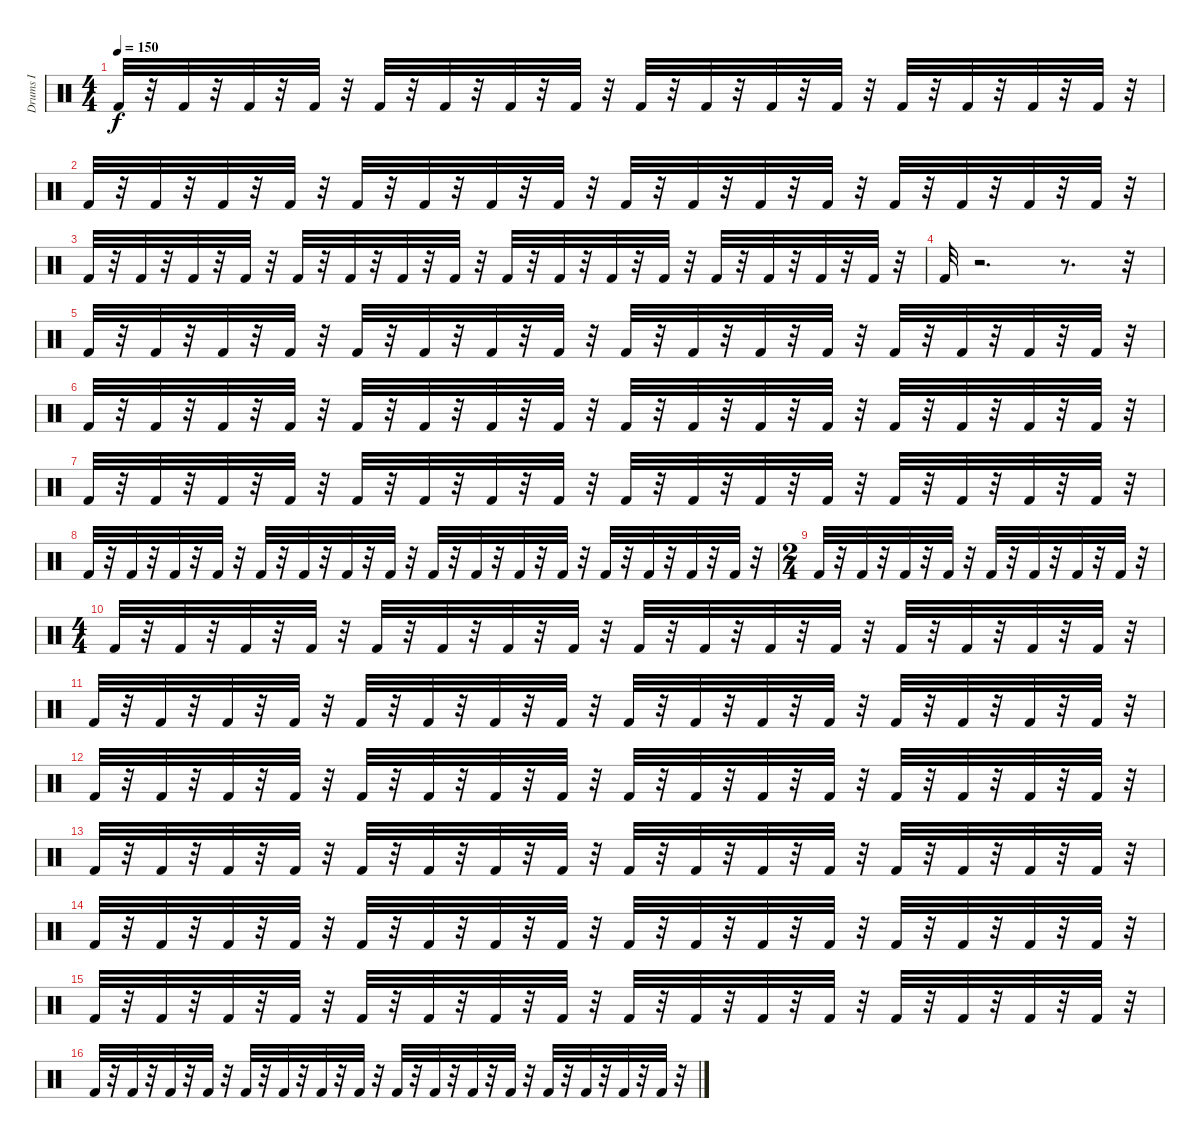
\track ("Drums I" "Drums I") {instrument percussion}
\staff {score}
\articulation defaults
\ts (4 4)
\tempo 150
\clef neutral
\ks c "Kick (hit) 2".32{dy f}
r.32 "Kick (hit) 2".32 r.32 "Kick (hit) 2".32 r.32 "Kick (hit) 2".32 r.32 "Kick (hit) 2".32 r.32 "Kick (hit) 2".32 r.32 "Kick (hit) 2".32 r.32 "Kick (hit) 2".32 r.32 "Kick (hit) 2".32 r.32 "Kick (hit) 2".32 r.32 "Kick (hit) 2".32 r.32 "Kick (hit) 2".32 r.32 "Kick (hit) 2".32 r.32 "Kick (hit) 2".32 r.32 "Kick (hit) 2".32 r.32 "Kick (hit) 2".32 r.32 |
"Kick (hit) 2".32 r.32 "Kick (hit) 2".32 r.32 "Kick (hit) 2".32 r.32 "Kick (hit) 2".32 r.32 "Kick (hit) 2".32 r.32 "Kick (hit) 2".32 r.32 "Kick (hit) 2".32 r.32 "Kick (hit) 2".32 r.32 "Kick (hit) 2".32 r.32 "Kick (hit) 2".32 r.32 "Kick (hit) 2".32 r.32 "Kick (hit) 2".32 r.32 "Kick (hit) 2".32 r.32 "Kick (hit) 2".32 r.32 "Kick (hit) 2".32 r.32 "Kick (hit) 2".32 r.32 |
"Kick (hit) 2".32 r.32 "Kick (hit) 2".32 r.32 "Kick (hit) 2".32 r.32 "Kick (hit) 2".32 r.32 "Kick (hit) 2".32 r.32 "Kick (hit) 2".32 r.32 "Kick (hit) 2".32 r.32 "Kick (hit) 2".32 r.32 "Kick (hit) 2".32 r.32 "Kick (hit) 2".32 r.32 "Kick (hit) 2".32 r.32 "Kick (hit) 2".32 r.32 "Kick (hit) 2".32 r.32 "Kick (hit) 2".32 r.32 "Kick (hit) 2".32 r.32 "Kick (hit) 2".32 r.32 |
"Kick (hit) 2".32 r.2{d} r.8{d} r.32 |
"Kick (hit) 2".32 r.32 "Kick (hit) 2".32 r.32 "Kick (hit) 2".32 r.32 "Kick (hit) 2".32 r.32 "Kick (hit) 2".32 r.32 "Kick (hit) 2".32 r.32 "Kick (hit) 2".32 r.32 "Kick (hit) 2".32 r.32 "Kick (hit) 2".32 r.32 "Kick (hit) 2".32 r.32 "Kick (hit) 2".32 r.32 "Kick (hit) 2".32 r.32 "Kick (hit) 2".32 r.32 "Kick (hit) 2".32 r.32 "Kick (hit) 2".32 r.32 "Kick (hit) 2".32 r.32 |
"Kick (hit) 2".32 r.32 "Kick (hit) 2".32 r.32 "Kick (hit) 2".32 r.32 "Kick (hit) 2".32 r.32 "Kick (hit) 2".32 r.32 "Kick (hit) 2".32 r.32 "Kick (hit) 2".32 r.32 "Kick (hit) 2".32 r.32 "Kick (hit) 2".32 r.32 "Kick (hit) 2".32 r.32 "Kick (hit) 2".32 r.32 "Kick (hit) 2".32 r.32 "Kick (hit) 2".32 r.32 "Kick (hit) 2".32 r.32 "Kick (hit) 2".32 r.32 "Kick (hit) 2".32 r.32 |
"Kick (hit) 2".32 r.32 "Kick (hit) 2".32 r.32 "Kick (hit) 2".32 r.32 "Kick (hit) 2".32 r.32 "Kick (hit) 2".32 r.32 "Kick (hit) 2".32 r.32 "Kick (hit) 2".32 r.32 "Kick (hit) 2".32 r.32 "Kick (hit) 2".32 r.32 "Kick (hit) 2".32 r.32 "Kick (hit) 2".32 r.32 "Kick (hit) 2".32 r.32 "Kick (hit) 2".32 r.32 "Kick (hit) 2".32 r.32 "Kick (hit) 2".32 r.32 "Kick (hit) 2".32 r.32 |
"Kick (hit) 2".32 r.32 "Kick (hit) 2".32 r.32 "Kick (hit) 2".32 r.32 "Kick (hit) 2".32 r.32 "Kick (hit) 2".32 r.32 "Kick (hit) 2".32 r.32 "Kick (hit) 2".32 r.32 "Kick (hit) 2".32 r.32 "Kick (hit) 2".32 r.32 "Kick (hit) 2".32 r.32 "Kick (hit) 2".32 r.32 "Kick (hit) 2".32 r.32 "Kick (hit) 2".32 r.32 "Kick (hit) 2".32 r.32 "Kick (hit) 2".32 r.32 "Kick (hit) 2".32 r.32 |
\ts (2 4)
"Kick (hit) 2".32 r.32 "Kick (hit) 2".32 r.32 "Kick (hit) 2".32 r.32 "Kick (hit) 2".32 r.32 "Kick (hit) 2".32 r.32 "Kick (hit) 2".32 r.32 "Kick (hit) 2".32 r.32 "Kick (hit) 2".32 r.32 |
\ts (4 4)
"Kick (hit) 2".32 r.32 "Kick (hit) 2".32 r.32 "Kick (hit) 2".32 r.32 "Kick (hit) 2".32 r.32 "Kick (hit) 2".32 r.32 "Kick (hit) 2".32 r.32 "Kick (hit) 2".32 r.32 "Kick (hit) 2".32 r.32 "Kick (hit) 2".32 r.32 "Kick (hit) 2".32 r.32 "Kick (hit) 2".32 r.32 "Kick (hit) 2".32 r.32 "Kick (hit) 2".32 r.32 "Kick (hit) 2".32 r.32 "Kick (hit) 2".32 r.32 "Kick (hit) 2".32 r.32 |
"Kick (hit) 2".32 r.32 "Kick (hit) 2".32 r.32 "Kick (hit) 2".32 r.32 "Kick (hit) 2".32 r.32 "Kick (hit) 2".32 r.32 "Kick (hit) 2".32 r.32 "Kick (hit) 2".32 r.32 "Kick (hit) 2".32 r.32 "Kick (hit) 2".32 r.32 "Kick (hit) 2".32 r.32 "Kick (hit) 2".32 r.32 "Kick (hit) 2".32 r.32 "Kick (hit) 2".32 r.32 "Kick (hit) 2".32 r.32 "Kick (hit) 2".32 r.32 "Kick (hit) 2".32 r.32 |
"Kick (hit) 2".32 r.32 "Kick (hit) 2".32 r.32 "Kick (hit) 2".32 r.32 "Kick (hit) 2".32 r.32 "Kick (hit) 2".32 r.32 "Kick (hit) 2".32 r.32 "Kick (hit) 2".32 r.32 "Kick (hit) 2".32 r.32 "Kick (hit) 2".32 r.32 "Kick (hit) 2".32 r.32 "Kick (hit) 2".32 r.32 "Kick (hit) 2".32 r.32 "Kick (hit) 2".32 r.32 "Kick (hit) 2".32 r.32 "Kick (hit) 2".32 r.32 "Kick (hit) 2".32 r.32 |
"Kick (hit) 2".32 r.32 "Kick (hit) 2".32 r.32 "Kick (hit) 2".32 r.32 "Kick (hit) 2".32 r.32 "Kick (hit) 2".32 r.32 "Kick (hit) 2".32 r.32 "Kick (hit) 2".32 r.32 "Kick (hit) 2".32 r.32 "Kick (hit) 2".32 r.32 "Kick (hit) 2".32 r.32 "Kick (hit) 2".32 r.32 "Kick (hit) 2".32 r.32 "Kick (hit) 2".32 r.32 "Kick (hit) 2".32 r.32 "Kick (hit) 2".32 r.32 "Kick (hit) 2".32 r.32 |
"Kick (hit) 2".32 r.32 "Kick (hit) 2".32 r.32 "Kick (hit) 2".32 r.32 "Kick (hit) 2".32 r.32 "Kick (hit) 2".32 r.32 "Kick (hit) 2".32 r.32 "Kick (hit) 2".32 r.32 "Kick (hit) 2".32 r.32 "Kick (hit) 2".32 r.32 "Kick (hit) 2".32 r.32 "Kick (hit) 2".32 r.32 "Kick (hit) 2".32 r.32 "Kick (hit) 2".32 r.32 "Kick (hit) 2".32 r.32 "Kick (hit) 2".32 r.32 "Kick (hit) 2".32 r.32 |
"Kick (hit) 2".32 r.32 "Kick (hit) 2".32 r.32 "Kick (hit) 2".32 r.32 "Kick (hit) 2".32 r.32 "Kick (hit) 2".32 r.32 "Kick (hit) 2".32 r.32 "Kick (hit) 2".32 r.32 "Kick (hit) 2".32 r.32 "Kick (hit) 2".32 r.32 "Kick (hit) 2".32 r.32 "Kick (hit) 2".32 r.32 "Kick (hit) 2".32 r.32 "Kick (hit) 2".32 r.32 "Kick (hit) 2".32 r.32 "Kick (hit) 2".32 r.32 "Kick (hit) 2".32 r.32 |
"Kick (hit) 2".32 r.32 "Kick (hit) 2".32 r.32 "Kick (hit) 2".32 r.32 "Kick (hit) 2".32 r.32 "Kick (hit) 2".32 r.32 "Kick (hit) 2".32 r.32 "Kick (hit) 2".32 r.32 "Kick (hit) 2".32 r.32 "Kick (hit) 2".32 r.32 "Kick (hit) 2".32 r.32 "Kick (hit) 2".32 r.32 "Kick (hit) 2".32 r.32 "Kick (hit) 2".32 r.32 "Kick (hit) 2".32 r.32 "Kick (hit) 2".32 r.32 "Kick (hit) 2".32 r.32
